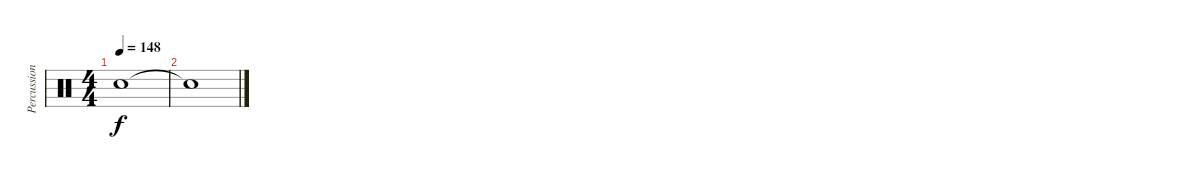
\track ("Percussions" "Percussion") {instrument percussion}
\staff {score}
\articulation defaults
\ts (4 4)
\tempo 148
\clef neutral
\ks c "Snare (hit)"{t}.1{dy f}
|
"Snare (hit)"{t}.1
